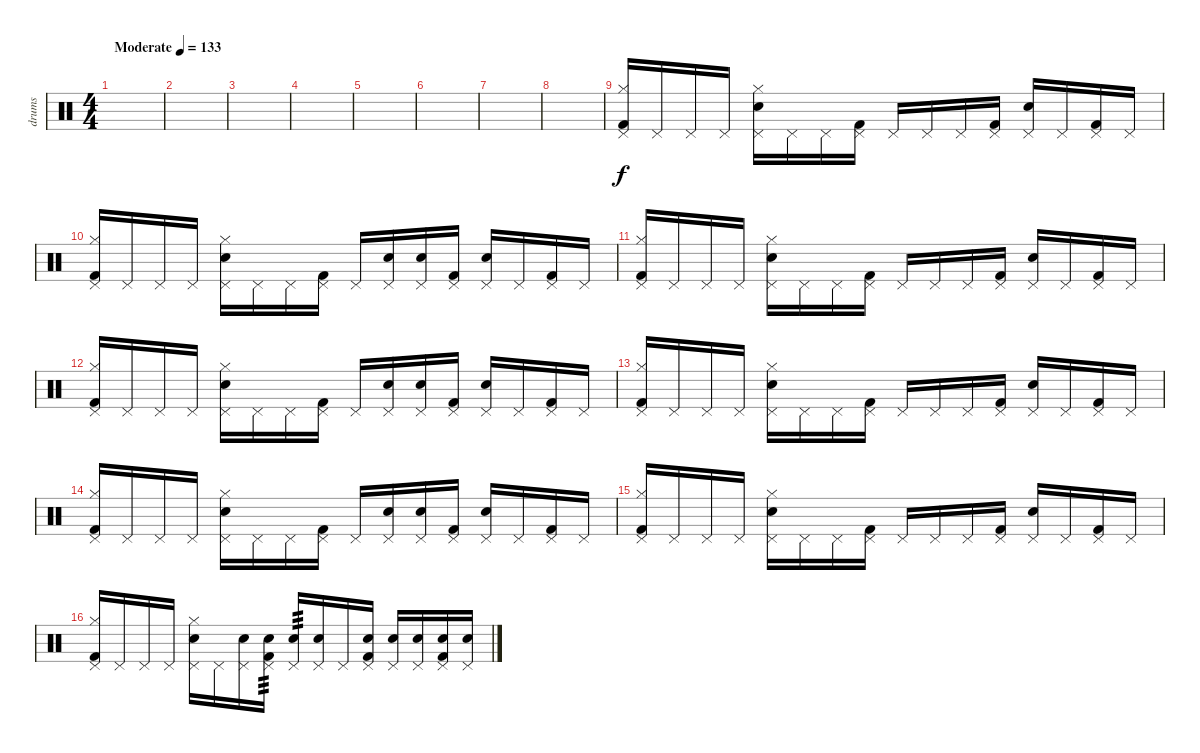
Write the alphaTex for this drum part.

\track ("drums" "drums") {instrument percussion}
\staff {score}
\articulation defaults
\ts (4 4)
\tempo (133 "Moderate")
\clef neutral
\ks c
|
|
|
|
|
|
|
|
("Kick (hit) 2" "Hi-Hat (closed)" "Pedal Hi-Hat (hit)").16 "Pedal Hi-Hat (hit)".16 "Pedal Hi-Hat (hit)".16 "Pedal Hi-Hat (hit)".16 ("Snare (hit) 2" "Hi-Hat (closed)" "Pedal Hi-Hat (hit)").16 "Pedal Hi-Hat (hit)".16 "Pedal Hi-Hat (hit)".16 ("Kick (hit) 2" "Pedal Hi-Hat (hit)").16 "Pedal Hi-Hat (hit)".16 "Pedal Hi-Hat (hit)".16 "Pedal Hi-Hat (hit)".16 ("Kick (hit) 2" "Pedal Hi-Hat (hit)").16 ("Snare (hit) 2" "Pedal Hi-Hat (hit)").16 "Pedal Hi-Hat (hit)".16 ("Kick (hit) 2" "Pedal Hi-Hat (hit)").16 "Pedal Hi-Hat (hit)".16 |
("Kick (hit) 2" "Hi-Hat (closed)" "Pedal Hi-Hat (hit)").16 "Pedal Hi-Hat (hit)".16 "Pedal Hi-Hat (hit)".16 "Pedal Hi-Hat (hit)".16 ("Snare (hit) 2" "Hi-Hat (closed)" "Pedal Hi-Hat (hit)").16 "Pedal Hi-Hat (hit)".16 "Pedal Hi-Hat (hit)".16 ("Kick (hit) 2" "Pedal Hi-Hat (hit)").16 "Pedal Hi-Hat (hit)".16 ("Snare (hit) 2" "Pedal Hi-Hat (hit)").16 ("Snare (hit) 2" "Pedal Hi-Hat (hit)").16 ("Kick (hit) 2" "Pedal Hi-Hat (hit)").16 ("Snare (hit) 2" "Pedal Hi-Hat (hit)").16 "Pedal Hi-Hat (hit)".16 ("Kick (hit) 2" "Pedal Hi-Hat (hit)").16 "Pedal Hi-Hat (hit)".16 |
("Kick (hit) 2" "Hi-Hat (closed)" "Pedal Hi-Hat (hit)").16 "Pedal Hi-Hat (hit)".16 "Pedal Hi-Hat (hit)".16 "Pedal Hi-Hat (hit)".16 ("Snare (hit) 2" "Hi-Hat (closed)" "Pedal Hi-Hat (hit)").16 "Pedal Hi-Hat (hit)".16 "Pedal Hi-Hat (hit)".16 ("Kick (hit) 2" "Pedal Hi-Hat (hit)").16 "Pedal Hi-Hat (hit)".16 "Pedal Hi-Hat (hit)".16 "Pedal Hi-Hat (hit)".16 ("Kick (hit) 2" "Pedal Hi-Hat (hit)").16 ("Snare (hit) 2" "Pedal Hi-Hat (hit)").16 "Pedal Hi-Hat (hit)".16 ("Kick (hit) 2" "Pedal Hi-Hat (hit)").16 "Pedal Hi-Hat (hit)".16 |
("Kick (hit) 2" "Hi-Hat (closed)" "Pedal Hi-Hat (hit)").16 "Pedal Hi-Hat (hit)".16 "Pedal Hi-Hat (hit)".16 "Pedal Hi-Hat (hit)".16 ("Snare (hit) 2" "Hi-Hat (closed)" "Pedal Hi-Hat (hit)").16 "Pedal Hi-Hat (hit)".16 "Pedal Hi-Hat (hit)".16 ("Kick (hit) 2" "Pedal Hi-Hat (hit)").16 "Pedal Hi-Hat (hit)".16 ("Snare (hit) 2" "Pedal Hi-Hat (hit)").16 ("Snare (hit) 2" "Pedal Hi-Hat (hit)").16 ("Kick (hit) 2" "Pedal Hi-Hat (hit)").16 ("Snare (hit) 2" "Pedal Hi-Hat (hit)").16 "Pedal Hi-Hat (hit)".16 ("Kick (hit) 2" "Pedal Hi-Hat (hit)").16 "Pedal Hi-Hat (hit)".16 |
("Kick (hit) 2" "Hi-Hat (closed)" "Pedal Hi-Hat (hit)").16 "Pedal Hi-Hat (hit)".16 "Pedal Hi-Hat (hit)".16 "Pedal Hi-Hat (hit)".16 ("Snare (hit) 2" "Hi-Hat (closed)" "Pedal Hi-Hat (hit)").16 "Pedal Hi-Hat (hit)".16 "Pedal Hi-Hat (hit)".16 ("Kick (hit) 2" "Pedal Hi-Hat (hit)").16 "Pedal Hi-Hat (hit)".16 "Pedal Hi-Hat (hit)".16 "Pedal Hi-Hat (hit)".16 ("Kick (hit) 2" "Pedal Hi-Hat (hit)").16 ("Snare (hit) 2" "Pedal Hi-Hat (hit)").16 "Pedal Hi-Hat (hit)".16 ("Kick (hit) 2" "Pedal Hi-Hat (hit)").16 "Pedal Hi-Hat (hit)".16 |
("Kick (hit) 2" "Hi-Hat (closed)" "Pedal Hi-Hat (hit)").16 "Pedal Hi-Hat (hit)".16 "Pedal Hi-Hat (hit)".16 "Pedal Hi-Hat (hit)".16 ("Snare (hit) 2" "Hi-Hat (closed)" "Pedal Hi-Hat (hit)").16 "Pedal Hi-Hat (hit)".16 "Pedal Hi-Hat (hit)".16 ("Kick (hit) 2" "Pedal Hi-Hat (hit)").16 "Pedal Hi-Hat (hit)".16 ("Snare (hit) 2" "Pedal Hi-Hat (hit)").16 ("Snare (hit) 2" "Pedal Hi-Hat (hit)").16 ("Kick (hit) 2" "Pedal Hi-Hat (hit)").16 ("Snare (hit) 2" "Pedal Hi-Hat (hit)").16 "Pedal Hi-Hat (hit)".16 ("Kick (hit) 2" "Pedal Hi-Hat (hit)").16 "Pedal Hi-Hat (hit)".16 |
("Kick (hit) 2" "Hi-Hat (closed)" "Pedal Hi-Hat (hit)").16 "Pedal Hi-Hat (hit)".16 "Pedal Hi-Hat (hit)".16 "Pedal Hi-Hat (hit)".16 ("Snare (hit) 2" "Hi-Hat (closed)" "Pedal Hi-Hat (hit)").16 "Pedal Hi-Hat (hit)".16 "Pedal Hi-Hat (hit)".16 ("Kick (hit) 2" "Pedal Hi-Hat (hit)").16 "Pedal Hi-Hat (hit)".16 "Pedal Hi-Hat (hit)".16 "Pedal Hi-Hat (hit)".16 ("Kick (hit) 2" "Pedal Hi-Hat (hit)").16 ("Snare (hit) 2" "Pedal Hi-Hat (hit)").16 "Pedal Hi-Hat (hit)".16 ("Kick (hit) 2" "Pedal Hi-Hat (hit)").16 "Pedal Hi-Hat (hit)".16 |
("Kick (hit) 2" "Hi-Hat (closed)" "Pedal Hi-Hat (hit)").16 "Pedal Hi-Hat (hit)".16 "Pedal Hi-Hat (hit)".16 "Pedal Hi-Hat (hit)".16 ("Snare (hit) 2" "Hi-Hat (closed)" "Pedal Hi-Hat (hit)").16 "Pedal Hi-Hat (hit)".16 ("Snare (hit) 2" "Pedal Hi-Hat (hit)").16 ("Snare (hit) 2" "Kick (hit) 2" "Pedal Hi-Hat (hit)").16{tp 3} ("Snare (hit) 2" "Pedal Hi-Hat (hit)").16{tp 3} ("Snare (hit) 2" "Pedal Hi-Hat (hit)").16 "Pedal Hi-Hat (hit)".16 ("Snare (hit) 2" "Kick (hit) 2" "Pedal Hi-Hat (hit)").16 ("Snare (hit) 2" "Pedal Hi-Hat (hit)").16 ("Snare (hit) 2" "Pedal Hi-Hat (hit)").16 ("Snare (hit) 2" "Kick (hit) 2" "Pedal Hi-Hat (hit)").16 ("Snare (hit) 2" "Pedal Hi-Hat (hit)").16
